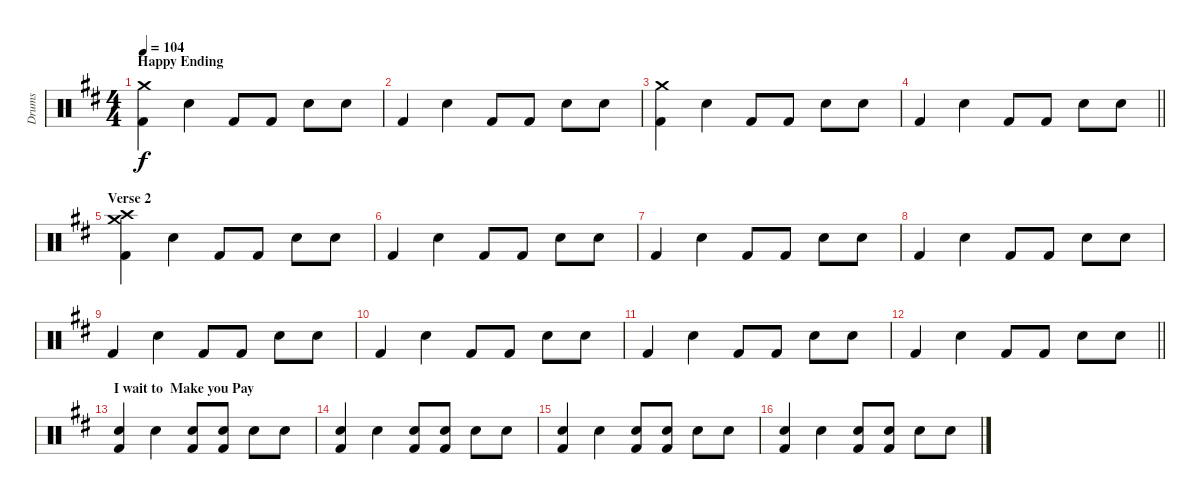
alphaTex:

\track ("Drums" "Drums") {instrument percussion}
\staff {score}
\articulation defaults
\ts (4 4)
\section ("" "Happy Ending")
\tempo 104
\clef neutral
\ks d
("Crash medium (hit)" "Kick (hit) 2").4{dy f} "Electric Snare (hit)".4 "Kick (hit) 2".8 "Kick (hit) 2".8 "Electric Snare (hit)".8 "Electric Snare (hit)".8 |
"Kick (hit) 2".4 "Electric Snare (hit)".4 "Kick (hit) 2".8 "Kick (hit) 2".8 "Electric Snare (hit)".8 "Electric Snare (hit)".8 |
("Crash medium (hit)" "Kick (hit) 2").4 "Electric Snare (hit)".4 "Kick (hit) 2".8 "Kick (hit) 2".8 "Electric Snare (hit)".8 "Electric Snare (hit)".8 |
\barLineRight lightlight "Kick (hit) 2".4 "Electric Snare (hit)".4 "Kick (hit) 2".8 "Kick (hit) 2".8 "Electric Snare (hit)".8 "Electric Snare (hit)".8
|
\section ("" "Verse 2")
("Crash high (hit)" "Crash medium (hit)" "Kick (hit) 2").4 "Electric Snare (hit)".4 "Kick (hit) 2".8 "Kick (hit) 2".8 "Electric Snare (hit)".8 "Electric Snare (hit)".8 |
"Kick (hit) 2".4 "Electric Snare (hit)".4 "Kick (hit) 2".8 "Kick (hit) 2".8 "Electric Snare (hit)".8 "Electric Snare (hit)".8 |
"Kick (hit) 2".4 "Electric Snare (hit)".4 "Kick (hit) 2".8 "Kick (hit) 2".8 "Electric Snare (hit)".8 "Electric Snare (hit)".8 |
"Kick (hit) 2".4 "Electric Snare (hit)".4 "Kick (hit) 2".8 "Kick (hit) 2".8 "Electric Snare (hit)".8 "Electric Snare (hit)".8 |
"Kick (hit) 2".4 "Electric Snare (hit)".4 "Kick (hit) 2".8 "Kick (hit) 2".8 "Electric Snare (hit)".8 "Electric Snare (hit)".8 |
"Kick (hit) 2".4 "Electric Snare (hit)".4 "Kick (hit) 2".8 "Kick (hit) 2".8 "Electric Snare (hit)".8 "Electric Snare (hit)".8 |
"Kick (hit) 2".4 "Electric Snare (hit)".4 "Kick (hit) 2".8 "Kick (hit) 2".8 "Electric Snare (hit)".8 "Electric Snare (hit)".8 |
\barLineRight lightlight "Kick (hit) 2".4 "Electric Snare (hit)".4 "Kick (hit) 2".8 "Kick (hit) 2".8 "Electric Snare (hit)".8 "Electric Snare (hit)".8
|
\section ("" "I wait to  Make you Pay")
("Snare (hit)" "Kick (hit) 2").4 "Electric Snare (hit)".4 ("Snare (hit)" "Kick (hit) 2").8 ("Snare (hit)" "Kick (hit) 2").8 "Electric Snare (hit)".8 "Electric Snare (hit)".8 |
("Snare (hit)" "Kick (hit) 2").4 "Electric Snare (hit)".4 ("Snare (hit)" "Kick (hit) 2").8 ("Snare (hit)" "Kick (hit) 2").8 "Electric Snare (hit)".8 "Electric Snare (hit)".8 |
("Snare (hit)" "Kick (hit) 2").4 "Electric Snare (hit)".4 ("Snare (hit)" "Kick (hit) 2").8 ("Snare (hit)" "Kick (hit) 2").8 "Electric Snare (hit)".8 "Electric Snare (hit)".8 |
("Snare (hit)" "Kick (hit) 2").4 "Electric Snare (hit)".4 ("Snare (hit)" "Kick (hit) 2").8 ("Snare (hit)" "Kick (hit) 2").8 "Electric Snare (hit)".8 "Electric Snare (hit)".8
